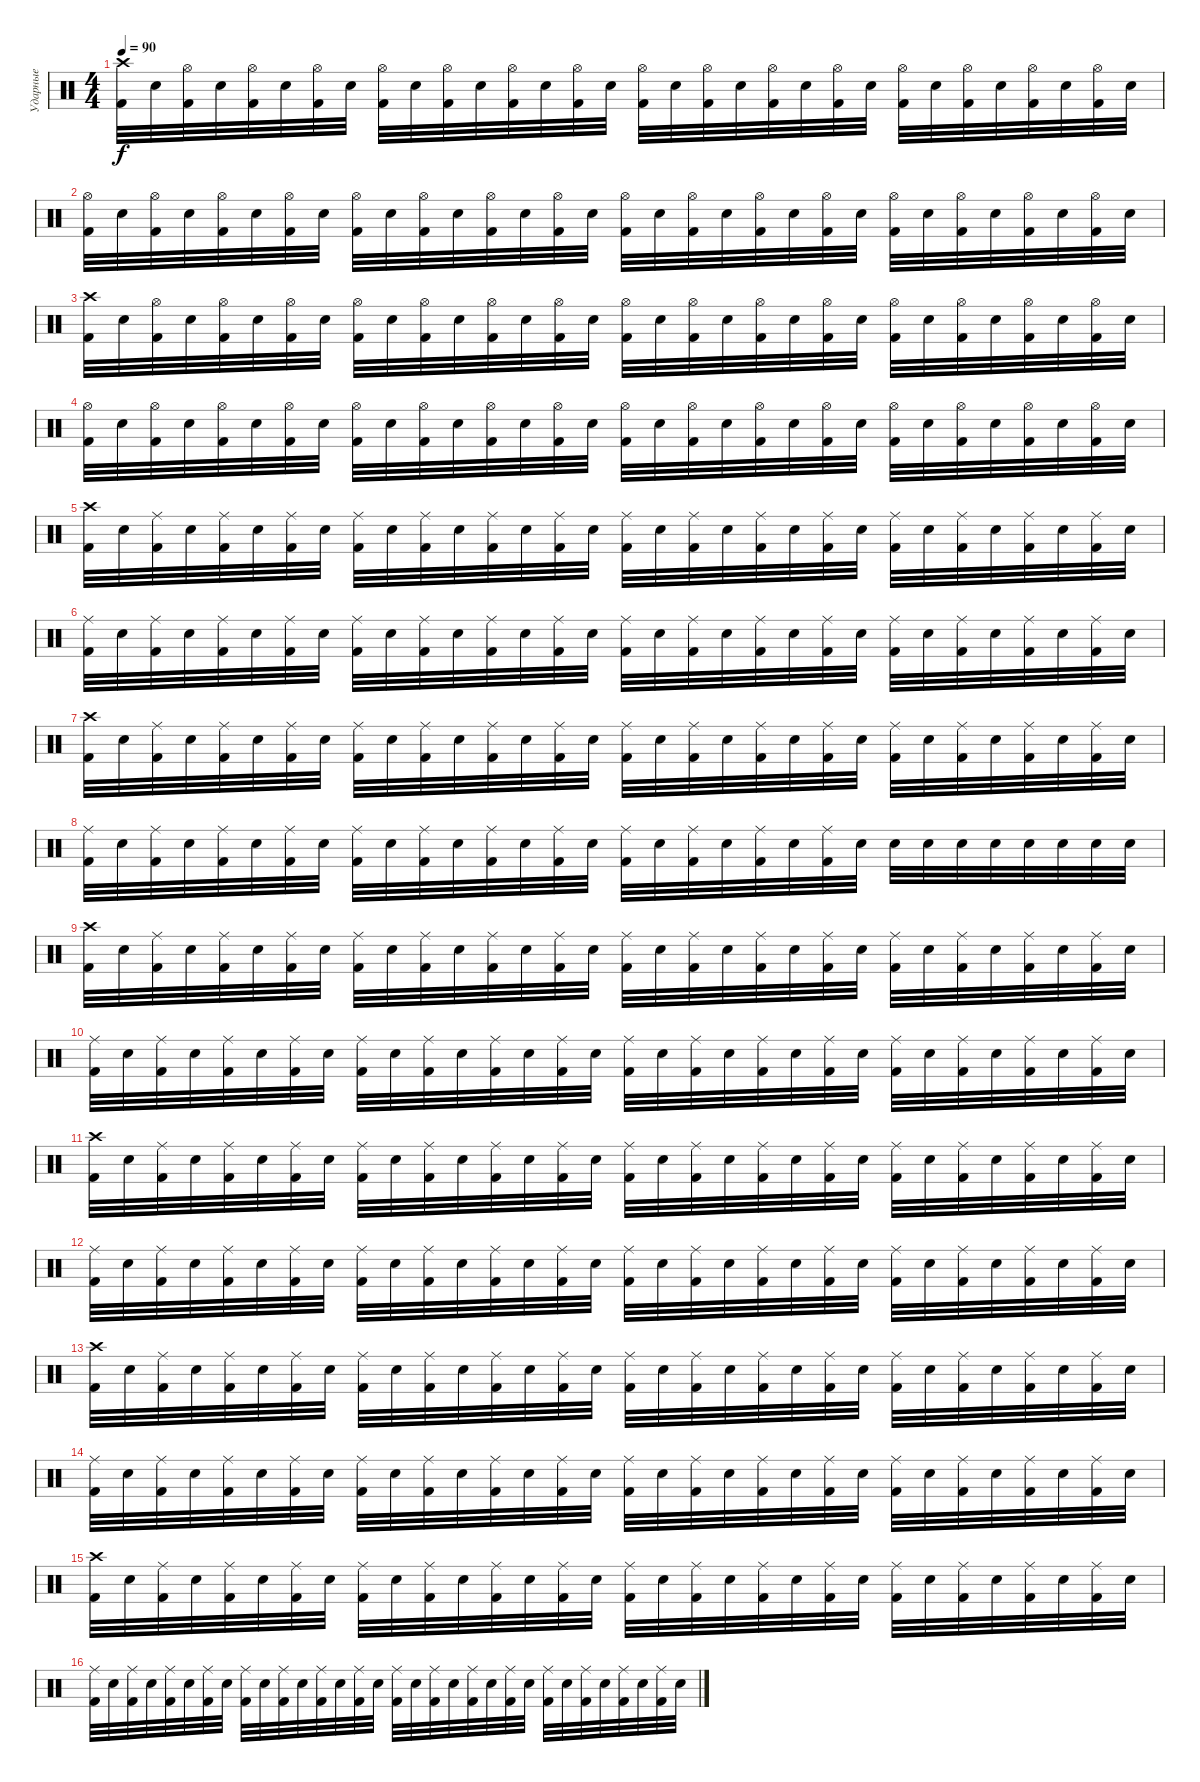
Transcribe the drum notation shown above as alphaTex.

\track ("Ударные" "Ударные") {instrument percussion}
\staff {score}
\articulation defaults
\ts (4 4)
\tempo 90
\clef neutral
\ks c
("Crash high (hit)" "Kick (hit) 2").32{dy f} "Snare (hit) 2".32 ("Hi-Hat (open)" "Kick (hit) 2").32 "Snare (hit) 2".32 ("Hi-Hat (open)" "Kick (hit) 2").32 "Snare (hit) 2".32 ("Hi-Hat (open)" "Kick (hit) 2").32 "Snare (hit) 2".32 ("Hi-Hat (open)" "Kick (hit) 2").32 "Snare (hit) 2".32 ("Hi-Hat (open)" "Kick (hit) 2").32 "Snare (hit) 2".32 ("Hi-Hat (open)" "Kick (hit) 2").32 "Snare (hit) 2".32 ("Hi-Hat (open)" "Kick (hit) 2").32 "Snare (hit) 2".32 ("Hi-Hat (open)" "Kick (hit) 2").32 "Snare (hit) 2".32 ("Hi-Hat (open)" "Kick (hit) 2").32 "Snare (hit) 2".32 ("Hi-Hat (open)" "Kick (hit) 2").32 "Snare (hit) 2".32 ("Hi-Hat (open)" "Kick (hit) 2").32 "Snare (hit) 2".32 ("Hi-Hat (open)" "Kick (hit) 2").32 "Snare (hit) 2".32 ("Hi-Hat (open)" "Kick (hit) 2").32 "Snare (hit) 2".32 ("Hi-Hat (open)" "Kick (hit) 2").32 "Snare (hit) 2".32 ("Hi-Hat (open)" "Kick (hit) 2").32 "Snare (hit) 2".32 |
("Hi-Hat (open)" "Kick (hit) 2").32 "Snare (hit) 2".32 ("Hi-Hat (open)" "Kick (hit) 2").32 "Snare (hit) 2".32 ("Hi-Hat (open)" "Kick (hit) 2").32 "Snare (hit) 2".32 ("Hi-Hat (open)" "Kick (hit) 2").32 "Snare (hit) 2".32 ("Hi-Hat (open)" "Kick (hit) 2").32 "Snare (hit) 2".32 ("Hi-Hat (open)" "Kick (hit) 2").32 "Snare (hit) 2".32 ("Hi-Hat (open)" "Kick (hit) 2").32 "Snare (hit) 2".32 ("Hi-Hat (open)" "Kick (hit) 2").32 "Snare (hit) 2".32 ("Hi-Hat (open)" "Kick (hit) 2").32 "Snare (hit) 2".32 ("Hi-Hat (open)" "Kick (hit) 2").32 "Snare (hit) 2".32 ("Hi-Hat (open)" "Kick (hit) 2").32 "Snare (hit) 2".32 ("Hi-Hat (open)" "Kick (hit) 2").32 "Snare (hit) 2".32 ("Hi-Hat (open)" "Kick (hit) 2").32 "Snare (hit) 2".32 ("Hi-Hat (open)" "Kick (hit) 2").32 "Snare (hit) 2".32 ("Hi-Hat (open)" "Kick (hit) 2").32 "Snare (hit) 2".32 ("Hi-Hat (open)" "Kick (hit) 2").32 "Snare (hit) 2".32 |
("Crash high (hit)" "Kick (hit) 2").32 "Snare (hit) 2".32 ("Hi-Hat (open)" "Kick (hit) 2").32 "Snare (hit) 2".32 ("Hi-Hat (open)" "Kick (hit) 2").32 "Snare (hit) 2".32 ("Hi-Hat (open)" "Kick (hit) 2").32 "Snare (hit) 2".32 ("Hi-Hat (open)" "Kick (hit) 2").32 "Snare (hit) 2".32 ("Hi-Hat (open)" "Kick (hit) 2").32 "Snare (hit) 2".32 ("Hi-Hat (open)" "Kick (hit) 2").32 "Snare (hit) 2".32 ("Hi-Hat (open)" "Kick (hit) 2").32 "Snare (hit) 2".32 ("Hi-Hat (open)" "Kick (hit) 2").32 "Snare (hit) 2".32 ("Hi-Hat (open)" "Kick (hit) 2").32 "Snare (hit) 2".32 ("Hi-Hat (open)" "Kick (hit) 2").32 "Snare (hit) 2".32 ("Hi-Hat (open)" "Kick (hit) 2").32 "Snare (hit) 2".32 ("Hi-Hat (open)" "Kick (hit) 2").32 "Snare (hit) 2".32 ("Hi-Hat (open)" "Kick (hit) 2").32 "Snare (hit) 2".32 ("Hi-Hat (open)" "Kick (hit) 2").32 "Snare (hit) 2".32 ("Hi-Hat (open)" "Kick (hit) 2").32 "Snare (hit) 2".32 |
("Hi-Hat (open)" "Kick (hit) 2").32 "Snare (hit) 2".32 ("Hi-Hat (open)" "Kick (hit) 2").32 "Snare (hit) 2".32 ("Hi-Hat (open)" "Kick (hit) 2").32 "Snare (hit) 2".32 ("Hi-Hat (open)" "Kick (hit) 2").32 "Snare (hit) 2".32 ("Hi-Hat (open)" "Kick (hit) 2").32 "Snare (hit) 2".32 ("Hi-Hat (open)" "Kick (hit) 2").32 "Snare (hit) 2".32 ("Hi-Hat (open)" "Kick (hit) 2").32 "Snare (hit) 2".32 ("Hi-Hat (open)" "Kick (hit) 2").32 "Snare (hit) 2".32 ("Hi-Hat (open)" "Kick (hit) 2").32 "Snare (hit) 2".32 ("Hi-Hat (open)" "Kick (hit) 2").32 "Snare (hit) 2".32 ("Hi-Hat (open)" "Kick (hit) 2").32 "Snare (hit) 2".32 ("Hi-Hat (open)" "Kick (hit) 2").32 "Snare (hit) 2".32 ("Hi-Hat (open)" "Kick (hit) 2").32 "Snare (hit) 2".32 ("Hi-Hat (open)" "Kick (hit) 2").32 "Snare (hit) 2".32 ("Hi-Hat (open)" "Kick (hit) 2").32 "Snare (hit) 2".32 ("Hi-Hat (open)" "Kick (hit) 2").32 "Snare (hit) 2".32 |
("Crash high (hit)" "Kick (hit) 2").32 "Snare (hit) 2".32 ("Ride (middle)" "Kick (hit) 2").32 "Snare (hit) 2".32 ("Ride (middle)" "Kick (hit) 2").32 "Snare (hit) 2".32 ("Ride (middle)" "Kick (hit) 2").32 "Snare (hit) 2".32 ("Ride (middle)" "Kick (hit) 2").32 "Snare (hit) 2".32 ("Ride (middle)" "Kick (hit) 2").32 "Snare (hit) 2".32 ("Ride (middle)" "Kick (hit) 2").32 "Snare (hit) 2".32 ("Ride (middle)" "Kick (hit) 2").32 "Snare (hit) 2".32 ("Ride (middle)" "Kick (hit) 2").32 "Snare (hit) 2".32 ("Ride (middle)" "Kick (hit) 2").32 "Snare (hit) 2".32 ("Ride (middle)" "Kick (hit) 2").32 "Snare (hit) 2".32 ("Ride (middle)" "Kick (hit) 2").32 "Snare (hit) 2".32 ("Ride (middle)" "Kick (hit) 2").32 "Snare (hit) 2".32 ("Ride (middle)" "Kick (hit) 2").32 "Snare (hit) 2".32 ("Ride (middle)" "Kick (hit) 2").32 "Snare (hit) 2".32 ("Ride (middle)" "Kick (hit) 2").32 "Snare (hit) 2".32 |
("Ride (middle)" "Kick (hit) 2").32 "Snare (hit) 2".32 ("Ride (middle)" "Kick (hit) 2").32 "Snare (hit) 2".32 ("Ride (middle)" "Kick (hit) 2").32 "Snare (hit) 2".32 ("Ride (middle)" "Kick (hit) 2").32 "Snare (hit) 2".32 ("Ride (middle)" "Kick (hit) 2").32 "Snare (hit) 2".32 ("Ride (middle)" "Kick (hit) 2").32 "Snare (hit) 2".32 ("Ride (middle)" "Kick (hit) 2").32 "Snare (hit) 2".32 ("Ride (middle)" "Kick (hit) 2").32 "Snare (hit) 2".32 ("Ride (middle)" "Kick (hit) 2").32 "Snare (hit) 2".32 ("Ride (middle)" "Kick (hit) 2").32 "Snare (hit) 2".32 ("Ride (middle)" "Kick (hit) 2").32 "Snare (hit) 2".32 ("Ride (middle)" "Kick (hit) 2").32 "Snare (hit) 2".32 ("Ride (middle)" "Kick (hit) 2").32 "Snare (hit) 2".32 ("Ride (middle)" "Kick (hit) 2").32 "Snare (hit) 2".32 ("Ride (middle)" "Kick (hit) 2").32 "Snare (hit) 2".32 ("Ride (middle)" "Kick (hit) 2").32 "Snare (hit) 2".32 |
("Crash high (hit)" "Kick (hit) 2").32 "Snare (hit) 2".32 ("Ride (middle)" "Kick (hit) 2").32 "Snare (hit) 2".32 ("Ride (middle)" "Kick (hit) 2").32 "Snare (hit) 2".32 ("Ride (middle)" "Kick (hit) 2").32 "Snare (hit) 2".32 ("Ride (middle)" "Kick (hit) 2").32 "Snare (hit) 2".32 ("Ride (middle)" "Kick (hit) 2").32 "Snare (hit) 2".32 ("Ride (middle)" "Kick (hit) 2").32 "Snare (hit) 2".32 ("Ride (middle)" "Kick (hit) 2").32 "Snare (hit) 2".32 ("Ride (middle)" "Kick (hit) 2").32 "Snare (hit) 2".32 ("Ride (middle)" "Kick (hit) 2").32 "Snare (hit) 2".32 ("Ride (middle)" "Kick (hit) 2").32 "Snare (hit) 2".32 ("Ride (middle)" "Kick (hit) 2").32 "Snare (hit) 2".32 ("Ride (middle)" "Kick (hit) 2").32 "Snare (hit) 2".32 ("Ride (middle)" "Kick (hit) 2").32 "Snare (hit) 2".32 ("Ride (middle)" "Kick (hit) 2").32 "Snare (hit) 2".32 ("Ride (middle)" "Kick (hit) 2").32 "Snare (hit) 2".32 |
("Ride (middle)" "Kick (hit) 2").32 "Snare (hit) 2".32 ("Ride (middle)" "Kick (hit) 2").32 "Snare (hit) 2".32 ("Ride (middle)" "Kick (hit) 2").32 "Snare (hit) 2".32 ("Ride (middle)" "Kick (hit) 2").32 "Snare (hit) 2".32 ("Ride (middle)" "Kick (hit) 2").32 "Snare (hit) 2".32 ("Ride (middle)" "Kick (hit) 2").32 "Snare (hit) 2".32 ("Ride (middle)" "Kick (hit) 2").32 "Snare (hit) 2".32 ("Ride (middle)" "Kick (hit) 2").32 "Snare (hit) 2".32 ("Ride (middle)" "Kick (hit) 2").32 "Snare (hit) 2".32 ("Ride (middle)" "Kick (hit) 2").32 "Snare (hit) 2".32 ("Ride (middle)" "Kick (hit) 2").32 "Snare (hit) 2".32 ("Ride (middle)" "Kick (hit) 2").32 "Snare (hit) 2".32 "Snare (hit) 2".32 "Snare (hit) 2".32 "Snare (hit) 2".32 "Snare (hit) 2".32 "Snare (hit) 2".32 "Snare (hit) 2".32 "Snare (hit) 2".32 "Snare (hit) 2".32 |
("Crash high (hit)" "Kick (hit) 2").32 "Snare (hit) 2".32 ("Ride (middle)" "Kick (hit) 2").32 "Snare (hit) 2".32 ("Ride (middle)" "Kick (hit) 2").32 "Snare (hit) 2".32 ("Ride (middle)" "Kick (hit) 2").32 "Snare (hit) 2".32 ("Ride (middle)" "Kick (hit) 2").32 "Snare (hit) 2".32 ("Ride (middle)" "Kick (hit) 2").32 "Snare (hit) 2".32 ("Ride (middle)" "Kick (hit) 2").32 "Snare (hit) 2".32 ("Ride (middle)" "Kick (hit) 2").32 "Snare (hit) 2".32 ("Ride (middle)" "Kick (hit) 2").32 "Snare (hit) 2".32 ("Ride (middle)" "Kick (hit) 2").32 "Snare (hit) 2".32 ("Ride (middle)" "Kick (hit) 2").32 "Snare (hit) 2".32 ("Ride (middle)" "Kick (hit) 2").32 "Snare (hit) 2".32 ("Ride (middle)" "Kick (hit) 2").32 "Snare (hit) 2".32 ("Ride (middle)" "Kick (hit) 2").32 "Snare (hit) 2".32 ("Ride (middle)" "Kick (hit) 2").32 "Snare (hit) 2".32 ("Ride (middle)" "Kick (hit) 2").32 "Snare (hit) 2".32 |
("Ride (middle)" "Kick (hit) 2").32 "Snare (hit) 2".32 ("Ride (middle)" "Kick (hit) 2").32 "Snare (hit) 2".32 ("Ride (middle)" "Kick (hit) 2").32 "Snare (hit) 2".32 ("Ride (middle)" "Kick (hit) 2").32 "Snare (hit) 2".32 ("Ride (middle)" "Kick (hit) 2").32 "Snare (hit) 2".32 ("Ride (middle)" "Kick (hit) 2").32 "Snare (hit) 2".32 ("Ride (middle)" "Kick (hit) 2").32 "Snare (hit) 2".32 ("Ride (middle)" "Kick (hit) 2").32 "Snare (hit) 2".32 ("Ride (middle)" "Kick (hit) 2").32 "Snare (hit) 2".32 ("Ride (middle)" "Kick (hit) 2").32 "Snare (hit) 2".32 ("Ride (middle)" "Kick (hit) 2").32 "Snare (hit) 2".32 ("Ride (middle)" "Kick (hit) 2").32 "Snare (hit) 2".32 ("Ride (middle)" "Kick (hit) 2").32 "Snare (hit) 2".32 ("Ride (middle)" "Kick (hit) 2").32 "Snare (hit) 2".32 ("Ride (middle)" "Kick (hit) 2").32 "Snare (hit) 2".32 ("Ride (middle)" "Kick (hit) 2").32 "Snare (hit) 2".32 |
("Crash high (hit)" "Kick (hit) 2").32 "Snare (hit) 2".32 ("Ride (middle)" "Kick (hit) 2").32 "Snare (hit) 2".32 ("Ride (middle)" "Kick (hit) 2").32 "Snare (hit) 2".32 ("Ride (middle)" "Kick (hit) 2").32 "Snare (hit) 2".32 ("Ride (middle)" "Kick (hit) 2").32 "Snare (hit) 2".32 ("Ride (middle)" "Kick (hit) 2").32 "Snare (hit) 2".32 ("Ride (middle)" "Kick (hit) 2").32 "Snare (hit) 2".32 ("Ride (middle)" "Kick (hit) 2").32 "Snare (hit) 2".32 ("Ride (middle)" "Kick (hit) 2").32 "Snare (hit) 2".32 ("Ride (middle)" "Kick (hit) 2").32 "Snare (hit) 2".32 ("Ride (middle)" "Kick (hit) 2").32 "Snare (hit) 2".32 ("Ride (middle)" "Kick (hit) 2").32 "Snare (hit) 2".32 ("Ride (middle)" "Kick (hit) 2").32 "Snare (hit) 2".32 ("Ride (middle)" "Kick (hit) 2").32 "Snare (hit) 2".32 ("Ride (middle)" "Kick (hit) 2").32 "Snare (hit) 2".32 ("Ride (middle)" "Kick (hit) 2").32 "Snare (hit) 2".32 |
("Ride (middle)" "Kick (hit) 2").32 "Snare (hit) 2".32 ("Ride (middle)" "Kick (hit) 2").32 "Snare (hit) 2".32 ("Ride (middle)" "Kick (hit) 2").32 "Snare (hit) 2".32 ("Ride (middle)" "Kick (hit) 2").32 "Snare (hit) 2".32 ("Ride (middle)" "Kick (hit) 2").32 "Snare (hit) 2".32 ("Ride (middle)" "Kick (hit) 2").32 "Snare (hit) 2".32 ("Ride (middle)" "Kick (hit) 2").32 "Snare (hit) 2".32 ("Ride (middle)" "Kick (hit) 2").32 "Snare (hit) 2".32 ("Ride (middle)" "Kick (hit) 2").32 "Snare (hit) 2".32 ("Ride (middle)" "Kick (hit) 2").32 "Snare (hit) 2".32 ("Ride (middle)" "Kick (hit) 2").32 "Snare (hit) 2".32 ("Ride (middle)" "Kick (hit) 2").32 "Snare (hit) 2".32 ("Ride (middle)" "Kick (hit) 2").32 "Snare (hit) 2".32 ("Ride (middle)" "Kick (hit) 2").32 "Snare (hit) 2".32 ("Ride (middle)" "Kick (hit) 2").32 "Snare (hit) 2".32 ("Ride (middle)" "Kick (hit) 2").32 "Snare (hit) 2".32 |
("Crash high (hit)" "Kick (hit) 2").32 "Snare (hit) 2".32 ("Ride (middle)" "Kick (hit) 2").32 "Snare (hit) 2".32 ("Ride (middle)" "Kick (hit) 2").32 "Snare (hit) 2".32 ("Ride (middle)" "Kick (hit) 2").32 "Snare (hit) 2".32 ("Ride (middle)" "Kick (hit) 2").32 "Snare (hit) 2".32 ("Ride (middle)" "Kick (hit) 2").32 "Snare (hit) 2".32 ("Ride (middle)" "Kick (hit) 2").32 "Snare (hit) 2".32 ("Ride (middle)" "Kick (hit) 2").32 "Snare (hit) 2".32 ("Ride (middle)" "Kick (hit) 2").32 "Snare (hit) 2".32 ("Ride (middle)" "Kick (hit) 2").32 "Snare (hit) 2".32 ("Ride (middle)" "Kick (hit) 2").32 "Snare (hit) 2".32 ("Ride (middle)" "Kick (hit) 2").32 "Snare (hit) 2".32 ("Ride (middle)" "Kick (hit) 2").32 "Snare (hit) 2".32 ("Ride (middle)" "Kick (hit) 2").32 "Snare (hit) 2".32 ("Ride (middle)" "Kick (hit) 2").32 "Snare (hit) 2".32 ("Ride (middle)" "Kick (hit) 2").32 "Snare (hit) 2".32 |
("Ride (middle)" "Kick (hit) 2").32 "Snare (hit) 2".32 ("Ride (middle)" "Kick (hit) 2").32 "Snare (hit) 2".32 ("Ride (middle)" "Kick (hit) 2").32 "Snare (hit) 2".32 ("Ride (middle)" "Kick (hit) 2").32 "Snare (hit) 2".32 ("Ride (middle)" "Kick (hit) 2").32 "Snare (hit) 2".32 ("Ride (middle)" "Kick (hit) 2").32 "Snare (hit) 2".32 ("Ride (middle)" "Kick (hit) 2").32 "Snare (hit) 2".32 ("Ride (middle)" "Kick (hit) 2").32 "Snare (hit) 2".32 ("Ride (middle)" "Kick (hit) 2").32 "Snare (hit) 2".32 ("Ride (middle)" "Kick (hit) 2").32 "Snare (hit) 2".32 ("Ride (middle)" "Kick (hit) 2").32 "Snare (hit) 2".32 ("Ride (middle)" "Kick (hit) 2").32 "Snare (hit) 2".32 ("Ride (middle)" "Kick (hit) 2").32 "Snare (hit) 2".32 ("Ride (middle)" "Kick (hit) 2").32 "Snare (hit) 2".32 ("Ride (middle)" "Kick (hit) 2").32 "Snare (hit) 2".32 ("Ride (middle)" "Kick (hit) 2").32 "Snare (hit) 2".32 |
("Crash high (hit)" "Kick (hit) 2").32 "Snare (hit) 2".32 ("Ride (middle)" "Kick (hit) 2").32 "Snare (hit) 2".32 ("Ride (middle)" "Kick (hit) 2").32 "Snare (hit) 2".32 ("Ride (middle)" "Kick (hit) 2").32 "Snare (hit) 2".32 ("Ride (middle)" "Kick (hit) 2").32 "Snare (hit) 2".32 ("Ride (middle)" "Kick (hit) 2").32 "Snare (hit) 2".32 ("Ride (middle)" "Kick (hit) 2").32 "Snare (hit) 2".32 ("Ride (middle)" "Kick (hit) 2").32 "Snare (hit) 2".32 ("Ride (middle)" "Kick (hit) 2").32 "Snare (hit) 2".32 ("Ride (middle)" "Kick (hit) 2").32 "Snare (hit) 2".32 ("Ride (middle)" "Kick (hit) 2").32 "Snare (hit) 2".32 ("Ride (middle)" "Kick (hit) 2").32 "Snare (hit) 2".32 ("Ride (middle)" "Kick (hit) 2").32 "Snare (hit) 2".32 ("Ride (middle)" "Kick (hit) 2").32 "Snare (hit) 2".32 ("Ride (middle)" "Kick (hit) 2").32 "Snare (hit) 2".32 ("Ride (middle)" "Kick (hit) 2").32 "Snare (hit) 2".32 |
("Ride (middle)" "Kick (hit) 2").32 "Snare (hit) 2".32 ("Ride (middle)" "Kick (hit) 2").32 "Snare (hit) 2".32 ("Ride (middle)" "Kick (hit) 2").32 "Snare (hit) 2".32 ("Ride (middle)" "Kick (hit) 2").32 "Snare (hit) 2".32 ("Ride (middle)" "Kick (hit) 2").32 "Snare (hit) 2".32 ("Ride (middle)" "Kick (hit) 2").32 "Snare (hit) 2".32 ("Ride (middle)" "Kick (hit) 2").32 "Snare (hit) 2".32 ("Ride (middle)" "Kick (hit) 2").32 "Snare (hit) 2".32 ("Ride (middle)" "Kick (hit) 2").32 "Snare (hit) 2".32 ("Ride (middle)" "Kick (hit) 2").32 "Snare (hit) 2".32 ("Ride (middle)" "Kick (hit) 2").32 "Snare (hit) 2".32 ("Ride (middle)" "Kick (hit) 2").32 "Snare (hit) 2".32 ("Ride (middle)" "Kick (hit) 2").32 "Snare (hit) 2".32 ("Ride (middle)" "Kick (hit) 2").32 "Snare (hit) 2".32 ("Ride (middle)" "Kick (hit) 2").32 "Snare (hit) 2".32 ("Ride (middle)" "Kick (hit) 2").32 "Snare (hit) 2".32
